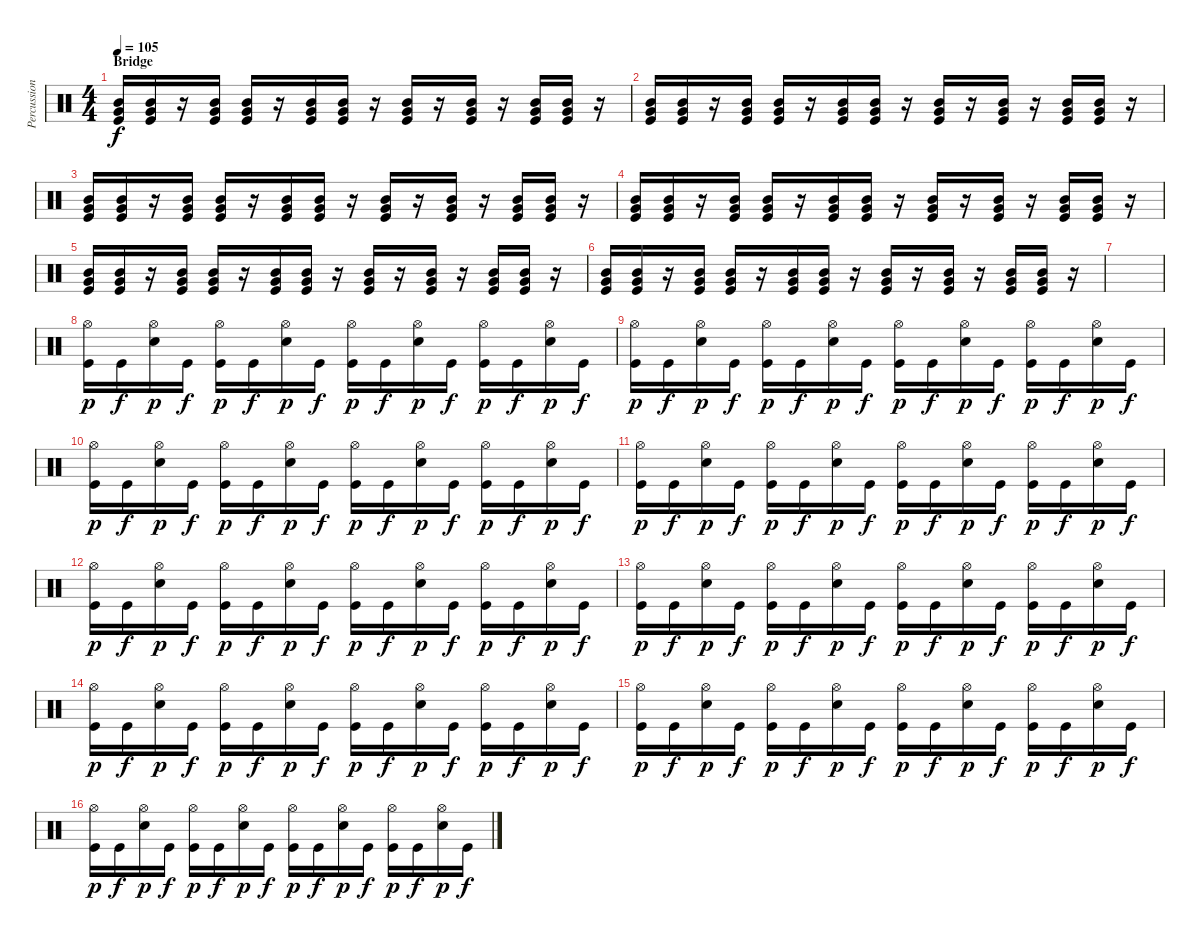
\track ("Percussion" "Percussion") {instrument percussion}
\staff {score}
\articulation defaults
\ts (4 4)
\section ("" "Bridge")
\tempo 105
\clef neutral
\ks c
("Mid Tom (hit)" "Very Low Tom (hit)" "Kick (hit)").16{dy f} ("Mid Tom (hit)" "Very Low Tom (hit)" "Kick (hit)").16 r.16 ("Mid Tom (hit)" "Very Low Tom (hit)" "Kick (hit)").16 ("Mid Tom (hit)" "Very Low Tom (hit)" "Kick (hit)").16 r.16 ("Mid Tom (hit)" "Very Low Tom (hit)" "Kick (hit)").16 ("Mid Tom (hit)" "Very Low Tom (hit)" "Kick (hit)").16 r.16 ("Mid Tom (hit)" "Very Low Tom (hit)" "Kick (hit)").16 r.16 ("Mid Tom (hit)" "Very Low Tom (hit)" "Kick (hit)").16 r.16 ("Mid Tom (hit)" "Very Low Tom (hit)" "Kick (hit)").16 ("Mid Tom (hit)" "Very Low Tom (hit)" "Kick (hit)").16 r.16 |
("Mid Tom (hit)" "Very Low Tom (hit)" "Kick (hit)").16 ("Mid Tom (hit)" "Very Low Tom (hit)" "Kick (hit)").16 r.16 ("Mid Tom (hit)" "Very Low Tom (hit)" "Kick (hit)").16 ("Mid Tom (hit)" "Very Low Tom (hit)" "Kick (hit)").16 r.16 ("Mid Tom (hit)" "Very Low Tom (hit)" "Kick (hit)").16 ("Mid Tom (hit)" "Very Low Tom (hit)" "Kick (hit)").16 r.16 ("Mid Tom (hit)" "Very Low Tom (hit)" "Kick (hit)").16 r.16 ("Mid Tom (hit)" "Very Low Tom (hit)" "Kick (hit)").16 r.16 ("Mid Tom (hit)" "Very Low Tom (hit)" "Kick (hit)").16 ("Mid Tom (hit)" "Very Low Tom (hit)" "Kick (hit)").16 r.16 |
("Mid Tom (hit)" "Very Low Tom (hit)" "Kick (hit)").16 ("Mid Tom (hit)" "Very Low Tom (hit)" "Kick (hit)").16 r.16 ("Mid Tom (hit)" "Very Low Tom (hit)" "Kick (hit)").16 ("Mid Tom (hit)" "Very Low Tom (hit)" "Kick (hit)").16 r.16 ("Mid Tom (hit)" "Very Low Tom (hit)" "Kick (hit)").16 ("Mid Tom (hit)" "Very Low Tom (hit)" "Kick (hit)").16 r.16 ("Mid Tom (hit)" "Very Low Tom (hit)" "Kick (hit)").16 r.16 ("Mid Tom (hit)" "Very Low Tom (hit)" "Kick (hit)").16 r.16 ("Mid Tom (hit)" "Very Low Tom (hit)" "Kick (hit)").16 ("Mid Tom (hit)" "Very Low Tom (hit)" "Kick (hit)").16 r.16 |
("Mid Tom (hit)" "Very Low Tom (hit)" "Kick (hit)").16 ("Mid Tom (hit)" "Very Low Tom (hit)" "Kick (hit)").16 r.16 ("Mid Tom (hit)" "Very Low Tom (hit)" "Kick (hit)").16 ("Mid Tom (hit)" "Very Low Tom (hit)" "Kick (hit)").16 r.16 ("Mid Tom (hit)" "Very Low Tom (hit)" "Kick (hit)").16 ("Mid Tom (hit)" "Very Low Tom (hit)" "Kick (hit)").16 r.16 ("Mid Tom (hit)" "Very Low Tom (hit)" "Kick (hit)").16 r.16 ("Mid Tom (hit)" "Very Low Tom (hit)" "Kick (hit)").16 r.16 ("Mid Tom (hit)" "Very Low Tom (hit)" "Kick (hit)").16 ("Mid Tom (hit)" "Very Low Tom (hit)" "Kick (hit)").16 r.16 |
("Mid Tom (hit)" "Very Low Tom (hit)" "Kick (hit)").16 ("Mid Tom (hit)" "Very Low Tom (hit)" "Kick (hit)").16 r.16 ("Mid Tom (hit)" "Very Low Tom (hit)" "Kick (hit)").16 ("Mid Tom (hit)" "Very Low Tom (hit)" "Kick (hit)").16 r.16 ("Mid Tom (hit)" "Very Low Tom (hit)" "Kick (hit)").16 ("Mid Tom (hit)" "Very Low Tom (hit)" "Kick (hit)").16 r.16 ("Mid Tom (hit)" "Very Low Tom (hit)" "Kick (hit)").16 r.16 ("Mid Tom (hit)" "Very Low Tom (hit)" "Kick (hit)").16 r.16 ("Mid Tom (hit)" "Very Low Tom (hit)" "Kick (hit)").16 ("Mid Tom (hit)" "Very Low Tom (hit)" "Kick (hit)").16 r.16 |
("Mid Tom (hit)" "Very Low Tom (hit)" "Kick (hit)").16 ("Mid Tom (hit)" "Very Low Tom (hit)" "Kick (hit)").16 r.16 ("Mid Tom (hit)" "Very Low Tom (hit)" "Kick (hit)").16 ("Mid Tom (hit)" "Very Low Tom (hit)" "Kick (hit)").16 r.16 ("Mid Tom (hit)" "Very Low Tom (hit)" "Kick (hit)").16 ("Mid Tom (hit)" "Very Low Tom (hit)" "Kick (hit)").16 r.16 ("Mid Tom (hit)" "Very Low Tom (hit)" "Kick (hit)").16 r.16 ("Mid Tom (hit)" "Very Low Tom (hit)" "Kick (hit)").16 r.16 ("Mid Tom (hit)" "Very Low Tom (hit)" "Kick (hit)").16 ("Mid Tom (hit)" "Very Low Tom (hit)" "Kick (hit)").16 r.16 |
|
("Hi-Hat (open)" "Kick (hit)").16{dy p} "Kick (hit)".16{dy f} ("Hi-Hat (open)" "Electric Snare (hit)").16{dy p} "Kick (hit)".16{dy f} ("Hi-Hat (open)" "Kick (hit)").16{dy p} "Kick (hit)".16{dy f} ("Hi-Hat (open)" "Electric Snare (hit)").16{dy p} "Kick (hit)".16{dy f} ("Hi-Hat (open)" "Kick (hit)").16{dy p} "Kick (hit)".16{dy f} ("Hi-Hat (open)" "Electric Snare (hit)").16{dy p} "Kick (hit)".16{dy f} ("Hi-Hat (open)" "Kick (hit)").16{dy p} "Kick (hit)".16{dy f} ("Hi-Hat (open)" "Electric Snare (hit)").16{dy p} "Kick (hit)".16{dy f} |
("Hi-Hat (open)" "Kick (hit)").16{dy p} "Kick (hit)".16{dy f} ("Hi-Hat (open)" "Electric Snare (hit)").16{dy p} "Kick (hit)".16{dy f} ("Hi-Hat (open)" "Kick (hit)").16{dy p} "Kick (hit)".16{dy f} ("Hi-Hat (open)" "Electric Snare (hit)").16{dy p} "Kick (hit)".16{dy f} ("Hi-Hat (open)" "Kick (hit)").16{dy p} "Kick (hit)".16{dy f} ("Hi-Hat (open)" "Electric Snare (hit)").16{dy p} "Kick (hit)".16{dy f} ("Hi-Hat (open)" "Kick (hit)").16{dy p} "Kick (hit)".16{dy f} ("Hi-Hat (open)" "Electric Snare (hit)").16{dy p} "Kick (hit)".16{dy f} |
("Hi-Hat (open)" "Kick (hit)").16{dy p} "Kick (hit)".16{dy f} ("Hi-Hat (open)" "Electric Snare (hit)").16{dy p} "Kick (hit)".16{dy f} ("Hi-Hat (open)" "Kick (hit)").16{dy p} "Kick (hit)".16{dy f} ("Hi-Hat (open)" "Electric Snare (hit)").16{dy p} "Kick (hit)".16{dy f} ("Hi-Hat (open)" "Kick (hit)").16{dy p} "Kick (hit)".16{dy f} ("Hi-Hat (open)" "Electric Snare (hit)").16{dy p} "Kick (hit)".16{dy f} ("Hi-Hat (open)" "Kick (hit)").16{dy p} "Kick (hit)".16{dy f} ("Hi-Hat (open)" "Electric Snare (hit)").16{dy p} "Kick (hit)".16{dy f} |
("Hi-Hat (open)" "Kick (hit)").16{dy p} "Kick (hit)".16{dy f} ("Hi-Hat (open)" "Electric Snare (hit)").16{dy p} "Kick (hit)".16{dy f} ("Hi-Hat (open)" "Kick (hit)").16{dy p} "Kick (hit)".16{dy f} ("Hi-Hat (open)" "Electric Snare (hit)").16{dy p} "Kick (hit)".16{dy f} ("Hi-Hat (open)" "Kick (hit)").16{dy p} "Kick (hit)".16{dy f} ("Hi-Hat (open)" "Electric Snare (hit)").16{dy p} "Kick (hit)".16{dy f} ("Hi-Hat (open)" "Kick (hit)").16{dy p} "Kick (hit)".16{dy f} ("Hi-Hat (open)" "Electric Snare (hit)").16{dy p} "Kick (hit)".16{dy f} |
("Hi-Hat (open)" "Kick (hit)").16{dy p} "Kick (hit)".16{dy f} ("Hi-Hat (open)" "Electric Snare (hit)").16{dy p} "Kick (hit)".16{dy f} ("Hi-Hat (open)" "Kick (hit)").16{dy p} "Kick (hit)".16{dy f} ("Hi-Hat (open)" "Electric Snare (hit)").16{dy p} "Kick (hit)".16{dy f} ("Hi-Hat (open)" "Kick (hit)").16{dy p} "Kick (hit)".16{dy f} ("Hi-Hat (open)" "Electric Snare (hit)").16{dy p} "Kick (hit)".16{dy f} ("Hi-Hat (open)" "Kick (hit)").16{dy p} "Kick (hit)".16{dy f} ("Hi-Hat (open)" "Electric Snare (hit)").16{dy p} "Kick (hit)".16{dy f} |
("Hi-Hat (open)" "Kick (hit)").16{dy p} "Kick (hit)".16{dy f} ("Hi-Hat (open)" "Electric Snare (hit)").16{dy p} "Kick (hit)".16{dy f} ("Hi-Hat (open)" "Kick (hit)").16{dy p} "Kick (hit)".16{dy f} ("Hi-Hat (open)" "Electric Snare (hit)").16{dy p} "Kick (hit)".16{dy f} ("Hi-Hat (open)" "Kick (hit)").16{dy p} "Kick (hit)".16{dy f} ("Hi-Hat (open)" "Electric Snare (hit)").16{dy p} "Kick (hit)".16{dy f} ("Hi-Hat (open)" "Kick (hit)").16{dy p} "Kick (hit)".16{dy f} ("Hi-Hat (open)" "Electric Snare (hit)").16{dy p} "Kick (hit)".16{dy f} |
("Hi-Hat (open)" "Kick (hit)").16{dy p} "Kick (hit)".16{dy f} ("Hi-Hat (open)" "Electric Snare (hit)").16{dy p} "Kick (hit)".16{dy f} ("Hi-Hat (open)" "Kick (hit)").16{dy p} "Kick (hit)".16{dy f} ("Hi-Hat (open)" "Electric Snare (hit)").16{dy p} "Kick (hit)".16{dy f} ("Hi-Hat (open)" "Kick (hit)").16{dy p} "Kick (hit)".16{dy f} ("Hi-Hat (open)" "Electric Snare (hit)").16{dy p} "Kick (hit)".16{dy f} ("Hi-Hat (open)" "Kick (hit)").16{dy p} "Kick (hit)".16{dy f} ("Hi-Hat (open)" "Electric Snare (hit)").16{dy p} "Kick (hit)".16{dy f} |
("Hi-Hat (open)" "Kick (hit)").16{dy p} "Kick (hit)".16{dy f} ("Hi-Hat (open)" "Electric Snare (hit)").16{dy p} "Kick (hit)".16{dy f} ("Hi-Hat (open)" "Kick (hit)").16{dy p} "Kick (hit)".16{dy f} ("Hi-Hat (open)" "Electric Snare (hit)").16{dy p} "Kick (hit)".16{dy f} ("Hi-Hat (open)" "Kick (hit)").16{dy p} "Kick (hit)".16{dy f} ("Hi-Hat (open)" "Electric Snare (hit)").16{dy p} "Kick (hit)".16{dy f} ("Hi-Hat (open)" "Kick (hit)").16{dy p} "Kick (hit)".16{dy f} ("Hi-Hat (open)" "Electric Snare (hit)").16{dy p} "Kick (hit)".16{dy f} |
("Hi-Hat (open)" "Kick (hit)").16{dy p} "Kick (hit)".16{dy f} ("Hi-Hat (open)" "Electric Snare (hit)").16{dy p} "Kick (hit)".16{dy f} ("Hi-Hat (open)" "Kick (hit)").16{dy p} "Kick (hit)".16{dy f} ("Hi-Hat (open)" "Electric Snare (hit)").16{dy p} "Kick (hit)".16{dy f} ("Hi-Hat (open)" "Kick (hit)").16{dy p} "Kick (hit)".16{dy f} ("Hi-Hat (open)" "Electric Snare (hit)").16{dy p} "Kick (hit)".16{dy f} ("Hi-Hat (open)" "Kick (hit)").16{dy p} "Kick (hit)".16{dy f} ("Hi-Hat (open)" "Electric Snare (hit)").16{dy p} "Kick (hit)".16{dy f}
